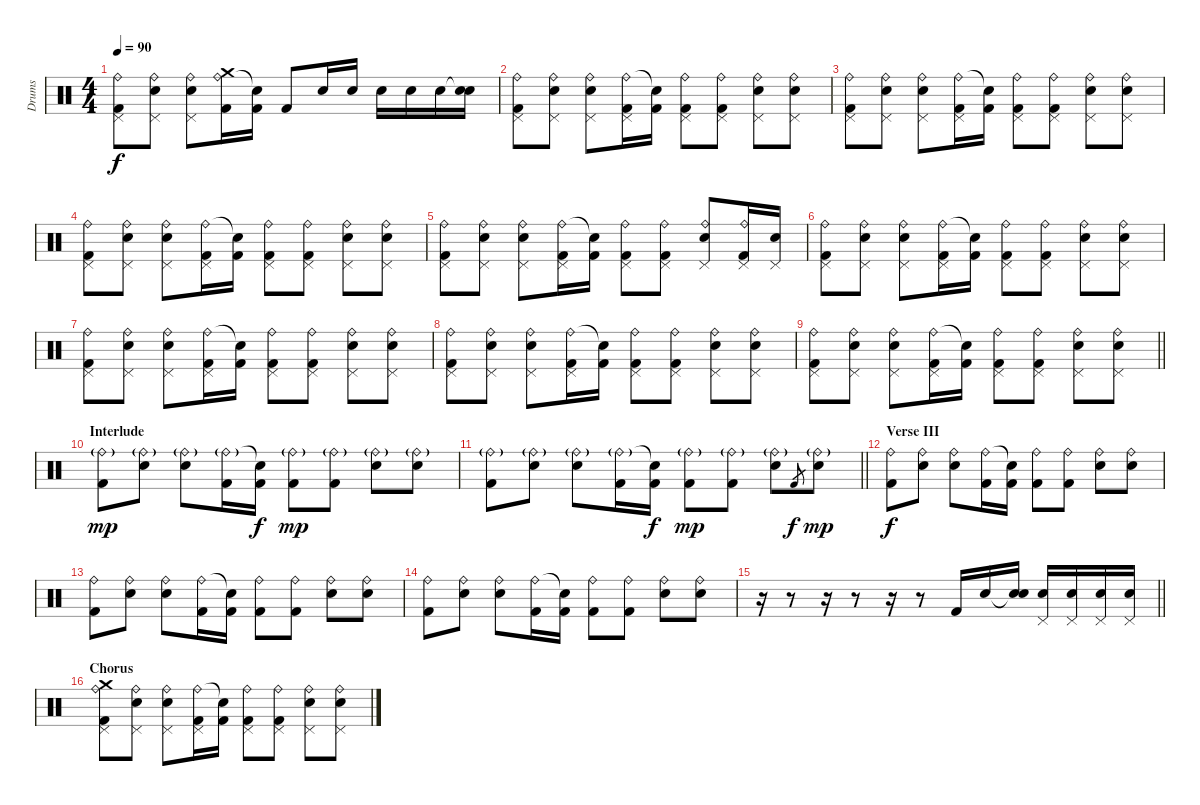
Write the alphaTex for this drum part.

\track ("Drums" "Drums") {instrument percussion}
\staff {score}
\articulation defaults
\ts (4 4)
\tempo 90
\clef neutral
\ks c
("Ride (bell)" "Pedal Hi-Hat (hit)" "Kick (hit) 2").8{dy f} ("Ride (bell)" "Pedal Hi-Hat (hit)" "Snare (hit)").8 ("Ride (bell)" "Pedal Hi-Hat (hit)" "Electric Snare (hit)").8 ("Ride (bell)" "Crash medium (hit)" "Kick (hit) 2").16 ("Snare (hit)"{t} "Kick (hit) 2").16 "Kick (hit) 2".8 "Electric Snare (hit)".16 "Electric Snare (hit)".16 "Electric Snare (hit)".16 "Electric Snare (hit)".16 "Electric Snare (hit)".16 ("Snare (hit)"{t} "Electric Snare (hit)").16 |
("Ride (bell)" "Pedal Hi-Hat (hit)" "Kick (hit) 2").8 ("Ride (bell)" "Pedal Hi-Hat (hit)" "Snare (hit)").8 ("Ride (bell)" "Pedal Hi-Hat (hit)" "Electric Snare (hit)").8 ("Ride (bell)" "Pedal Hi-Hat (hit)" "Kick (hit) 2").16 ("Snare (hit)"{t} "Kick (hit) 2").16 ("Ride (bell)" "Pedal Hi-Hat (hit)" "Kick (hit) 2").8 ("Ride (bell)" "Pedal Hi-Hat (hit)" "Kick (hit) 2").8 ("Ride (bell)" "Pedal Hi-Hat (hit)" "Electric Snare (hit)").8 ("Ride (bell)" "Pedal Hi-Hat (hit)" "Snare (hit)").8 |
("Ride (bell)" "Pedal Hi-Hat (hit)" "Kick (hit) 2").8 ("Ride (bell)" "Pedal Hi-Hat (hit)" "Snare (hit)").8 ("Ride (bell)" "Pedal Hi-Hat (hit)" "Electric Snare (hit)").8 ("Ride (bell)" "Pedal Hi-Hat (hit)" "Kick (hit) 2").16 ("Snare (hit)"{t} "Kick (hit) 2").16 ("Ride (bell)" "Pedal Hi-Hat (hit)" "Kick (hit) 2").8 ("Ride (bell)" "Pedal Hi-Hat (hit)" "Kick (hit) 2").8 ("Ride (bell)" "Pedal Hi-Hat (hit)" "Electric Snare (hit)").8 ("Ride (bell)" "Pedal Hi-Hat (hit)" "Snare (hit)").8 |
("Ride (bell)" "Pedal Hi-Hat (hit)" "Kick (hit) 2").8 ("Ride (bell)" "Pedal Hi-Hat (hit)" "Snare (hit)").8 ("Ride (bell)" "Pedal Hi-Hat (hit)" "Electric Snare (hit)").8 ("Ride (bell)" "Pedal Hi-Hat (hit)" "Kick (hit) 2").16 ("Snare (hit)"{t} "Kick (hit) 2").16 ("Ride (bell)" "Pedal Hi-Hat (hit)" "Kick (hit) 2").8 ("Ride (bell)" "Pedal Hi-Hat (hit)" "Kick (hit) 2").8 ("Ride (bell)" "Pedal Hi-Hat (hit)" "Electric Snare (hit)").8 ("Ride (bell)" "Pedal Hi-Hat (hit)" "Snare (hit)").8 |
("Ride (bell)" "Pedal Hi-Hat (hit)" "Kick (hit) 2").8 ("Ride (bell)" "Pedal Hi-Hat (hit)" "Snare (hit)").8 ("Ride (bell)" "Pedal Hi-Hat (hit)" "Electric Snare (hit)").8 ("Ride (bell)" "Pedal Hi-Hat (hit)" "Kick (hit) 2").16 ("Snare (hit)"{t} "Kick (hit) 2").16 ("Ride (bell)" "Pedal Hi-Hat (hit)" "Kick (hit) 2").8 ("Ride (bell)" "Pedal Hi-Hat (hit)" "Kick (hit) 2").8 ("Ride (bell)" "Pedal Hi-Hat (hit)" "Electric Snare (hit)").8 ("Ride (bell)" "Pedal Hi-Hat (hit)" "Kick (hit) 2").16 ("Pedal Hi-Hat (hit)" "Electric Snare (hit)").16 |
("Ride (bell)" "Pedal Hi-Hat (hit)" "Kick (hit) 2").8 ("Ride (bell)" "Pedal Hi-Hat (hit)" "Snare (hit)").8 ("Ride (bell)" "Pedal Hi-Hat (hit)" "Electric Snare (hit)").8 ("Ride (bell)" "Pedal Hi-Hat (hit)" "Kick (hit) 2").16 ("Snare (hit)"{t} "Kick (hit) 2").16 ("Ride (bell)" "Pedal Hi-Hat (hit)" "Kick (hit) 2").8 ("Ride (bell)" "Pedal Hi-Hat (hit)" "Kick (hit) 2").8 ("Ride (bell)" "Pedal Hi-Hat (hit)" "Electric Snare (hit)").8 ("Ride (bell)" "Pedal Hi-Hat (hit)" "Snare (hit)").8 |
("Ride (bell)" "Pedal Hi-Hat (hit)" "Kick (hit) 2").8 ("Ride (bell)" "Pedal Hi-Hat (hit)" "Snare (hit)").8 ("Ride (bell)" "Pedal Hi-Hat (hit)" "Electric Snare (hit)").8 ("Ride (bell)" "Pedal Hi-Hat (hit)" "Kick (hit) 2").16 ("Snare (hit)"{t} "Kick (hit) 2").16 ("Ride (bell)" "Pedal Hi-Hat (hit)" "Kick (hit) 2").8 ("Ride (bell)" "Pedal Hi-Hat (hit)" "Kick (hit) 2").8 ("Ride (bell)" "Pedal Hi-Hat (hit)" "Electric Snare (hit)").8 ("Ride (bell)" "Pedal Hi-Hat (hit)" "Snare (hit)").8 |
("Ride (bell)" "Pedal Hi-Hat (hit)" "Kick (hit) 2").8 ("Ride (bell)" "Pedal Hi-Hat (hit)" "Snare (hit)").8 ("Ride (bell)" "Pedal Hi-Hat (hit)" "Electric Snare (hit)").8 ("Ride (bell)" "Pedal Hi-Hat (hit)" "Kick (hit) 2").16 ("Snare (hit)"{t} "Kick (hit) 2").16 ("Ride (bell)" "Pedal Hi-Hat (hit)" "Kick (hit) 2").8 ("Ride (bell)" "Pedal Hi-Hat (hit)" "Kick (hit) 2").8 ("Ride (bell)" "Pedal Hi-Hat (hit)" "Electric Snare (hit)").8 ("Ride (bell)" "Pedal Hi-Hat (hit)" "Snare (hit)").8 |
\barLineRight lightlight
("Ride (bell)" "Pedal Hi-Hat (hit)" "Kick (hit) 2").8 ("Ride (bell)" "Pedal Hi-Hat (hit)" "Snare (hit)").8 ("Ride (bell)" "Pedal Hi-Hat (hit)" "Electric Snare (hit)").8 ("Ride (bell)" "Pedal Hi-Hat (hit)" "Kick (hit) 2").16 ("Snare (hit)"{t} "Kick (hit) 2").16 ("Ride (bell)" "Pedal Hi-Hat (hit)" "Kick (hit) 2").8 ("Ride (bell)" "Pedal Hi-Hat (hit)" "Kick (hit) 2").8 ("Ride (bell)" "Pedal Hi-Hat (hit)" "Electric Snare (hit)").8 ("Ride (bell)" "Pedal Hi-Hat (hit)" "Snare (hit)").8 |
\section ("" "Interlude")
("Ride (bell)"{g} "Kick (hit) 2").8{dy mp} ("Ride (bell)"{g} "Snare (hit)").8 ("Ride (bell)"{g} "Electric Snare (hit)").8 ("Ride (bell)"{g} "Kick (hit) 2").16 ("Snare (hit)"{t} "Kick (hit) 2").16{dy f} ("Ride (bell)"{g} "Kick (hit) 2").8{dy mp} ("Ride (bell)"{g} "Kick (hit) 2").8 ("Ride (bell)"{g} "Electric Snare (hit)").8 ("Ride (bell)"{g} "Snare (hit)").8 |
\barLineRight lightlight
("Ride (bell)"{g} "Kick (hit) 2").8 ("Ride (bell)"{g} "Snare (hit)").8 ("Ride (bell)"{g} "Electric Snare (hit)").8 ("Ride (bell)"{g} "Kick (hit) 2").16 ("Snare (hit)"{t} "Kick (hit) 2").16{dy f} ("Ride (bell)"{g} "Kick (hit) 2").8{dy mp} ("Ride (bell)"{g} "Kick (hit) 2").8 ("Ride (bell)"{g} "Electric Snare (hit)").8 "Kick (hit) 2".8{gr dy f} ("Ride (bell)"{g} "Electric Snare (hit)").8{dy mp} |
\section ("" "Verse III")
("Ride (bell)" "Kick (hit) 2").8{dy f} ("Ride (bell)" "Snare (hit)").8 ("Ride (bell)" "Electric Snare (hit)").8 ("Ride (bell)" "Kick (hit) 2").16 ("Snare (hit)"{t} "Kick (hit) 2").16 ("Ride (bell)" "Kick (hit) 2").8 ("Ride (bell)" "Kick (hit) 2").8 ("Ride (bell)" "Electric Snare (hit)").8 ("Ride (bell)" "Snare (hit)").8 |
("Ride (bell)" "Kick (hit) 2").8 ("Ride (bell)" "Snare (hit)").8 ("Ride (bell)" "Electric Snare (hit)").8 ("Ride (bell)" "Kick (hit) 2").16 ("Snare (hit)"{t} "Kick (hit) 2").16 ("Ride (bell)" "Kick (hit) 2").8 ("Ride (bell)" "Kick (hit) 2").8 ("Ride (bell)" "Electric Snare (hit)").8 ("Ride (bell)" "Snare (hit)").8 |
("Ride (bell)" "Kick (hit) 2").8 ("Ride (bell)" "Snare (hit)").8 ("Ride (bell)" "Electric Snare (hit)").8 ("Ride (bell)" "Kick (hit) 2").16 ("Snare (hit)"{t} "Kick (hit) 2").16 ("Ride (bell)" "Kick (hit) 2").8 ("Ride (bell)" "Kick (hit) 2").8 ("Ride (bell)" "Electric Snare (hit)").8 ("Ride (bell)" "Snare (hit)").8 |
\barLineRight lightlight
r.16 r.8 r.16 r.8 r.16 r.8 "Kick (hit) 2".16 "Electric Snare (hit)".16 ("Snare (hit)"{t} "Electric Snare (hit)").16 ("Pedal Hi-Hat (hit)" "Electric Snare (hit)").16 ("Pedal Hi-Hat (hit)" "Electric Snare (hit)").16 ("Pedal Hi-Hat (hit)" "Electric Snare (hit)").16 ("Pedal Hi-Hat (hit)" "Electric Snare (hit)").16 |
\section ("" "Chorus")
("Crash medium (hit)" "Ride (bell)" "Pedal Hi-Hat (hit)" "Kick (hit) 2").8 ("Ride (bell)" "Pedal Hi-Hat (hit)" "Snare (hit)").8 ("Ride (bell)" "Pedal Hi-Hat (hit)" "Electric Snare (hit)").8 ("Ride (bell)" "Pedal Hi-Hat (hit)" "Kick (hit) 2").16 ("Snare (hit)"{t} "Kick (hit) 2").16 ("Ride (bell)" "Pedal Hi-Hat (hit)" "Kick (hit) 2").8 ("Ride (bell)" "Pedal Hi-Hat (hit)" "Kick (hit) 2").8 ("Ride (bell)" "Pedal Hi-Hat (hit)" "Electric Snare (hit)").8 ("Ride (bell)" "Pedal Hi-Hat (hit)" "Snare (hit)").8
